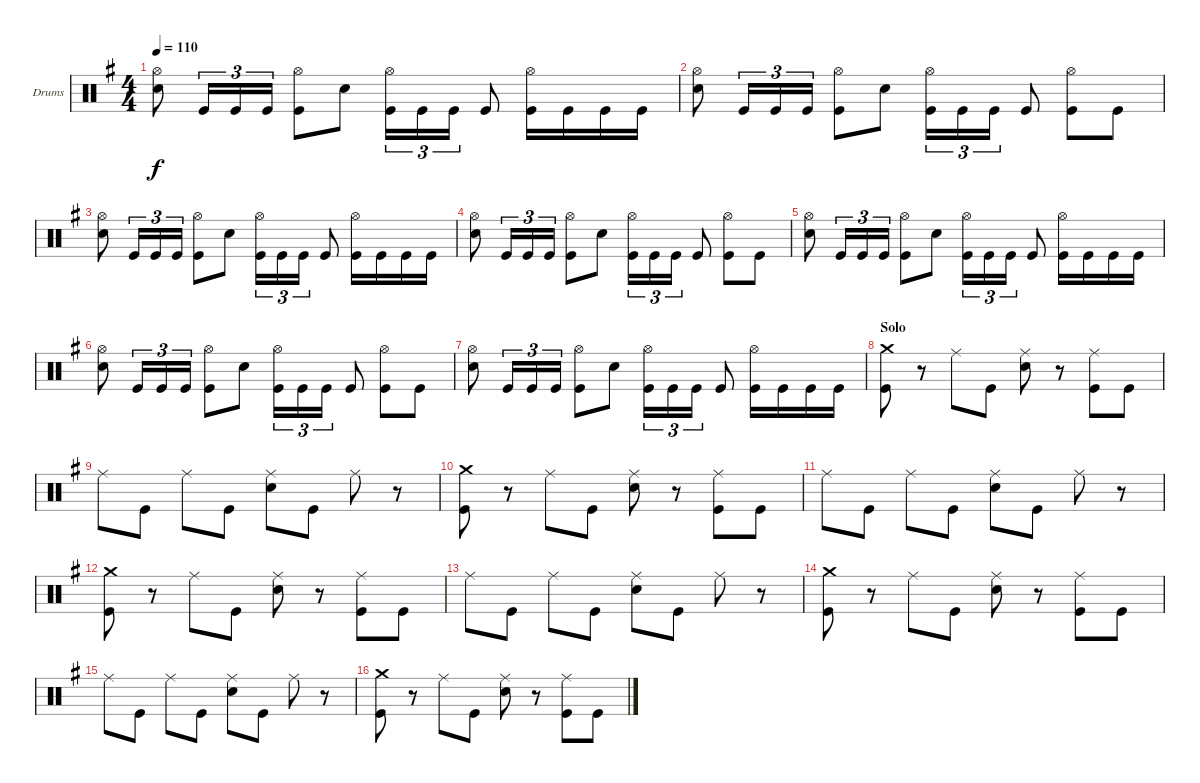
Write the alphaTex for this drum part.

\bracketExtendMode groupsimilarinstruments
\firstSystemTrackNameOrientation horizontal
\otherSystemsTrackNameOrientation horizontal
\track ("Drumkit" "Drums") {instrument percussion}
\staff {score}
\articulation defaults
\ts (4 4)
\tempo 110
\clef neutral
\ks g
("Hi-Hat (open)" "Snare (hit) 2").8{dy f} "Kick (hit)".16{tu (3 2)} "Kick (hit)".16{tu (3 2)} "Kick (hit)".16{tu (3 2)} ("Hi-Hat (open)" "Kick (hit)").8 "Snare (hit) 2".8 ("Hi-Hat (open)" "Kick (hit)").16{tu (3 2)} "Kick (hit)".16{tu (3 2)} "Kick (hit)".16{tu (3 2)} "Kick (hit)".8 ("Hi-Hat (open)" "Kick (hit)").16 "Kick (hit)".16 "Kick (hit)".16 "Kick (hit)".16 |
("Hi-Hat (open)" "Snare (hit) 2").8 "Kick (hit)".16{tu (3 2)} "Kick (hit)".16{tu (3 2)} "Kick (hit)".16{tu (3 2)} ("Hi-Hat (open)" "Kick (hit)").8 "Snare (hit) 2".8 ("Hi-Hat (open)" "Kick (hit)").16{tu (3 2)} "Kick (hit)".16{tu (3 2)} "Kick (hit)".16{tu (3 2)} "Kick (hit)".8 ("Hi-Hat (open)" "Kick (hit)").8 "Kick (hit)".8 |
("Hi-Hat (open)" "Snare (hit) 2").8 "Kick (hit)".16{tu (3 2)} "Kick (hit)".16{tu (3 2)} "Kick (hit)".16{tu (3 2)} ("Hi-Hat (open)" "Kick (hit)").8 "Snare (hit) 2".8 ("Hi-Hat (open)" "Kick (hit)").16{tu (3 2)} "Kick (hit)".16{tu (3 2)} "Kick (hit)".16{tu (3 2)} "Kick (hit)".8 ("Hi-Hat (open)" "Kick (hit)").16 "Kick (hit)".16 "Kick (hit)".16 "Kick (hit)".16 |
("Hi-Hat (open)" "Snare (hit) 2").8 "Kick (hit)".16{tu (3 2)} "Kick (hit)".16{tu (3 2)} "Kick (hit)".16{tu (3 2)} ("Hi-Hat (open)" "Kick (hit)").8 "Snare (hit) 2".8 ("Hi-Hat (open)" "Kick (hit)").16{tu (3 2)} "Kick (hit)".16{tu (3 2)} "Kick (hit)".16{tu (3 2)} "Kick (hit)".8 ("Hi-Hat (open)" "Kick (hit)").8 "Kick (hit)".8 |
("Hi-Hat (open)" "Snare (hit) 2").8 "Kick (hit)".16{tu (3 2)} "Kick (hit)".16{tu (3 2)} "Kick (hit)".16{tu (3 2)} ("Hi-Hat (open)" "Kick (hit)").8 "Snare (hit) 2".8 ("Hi-Hat (open)" "Kick (hit)").16{tu (3 2)} "Kick (hit)".16{tu (3 2)} "Kick (hit)".16{tu (3 2)} "Kick (hit)".8 ("Hi-Hat (open)" "Kick (hit)").16 "Kick (hit)".16 "Kick (hit)".16 "Kick (hit)".16 |
("Hi-Hat (open)" "Snare (hit) 2").8 "Kick (hit)".16{tu (3 2)} "Kick (hit)".16{tu (3 2)} "Kick (hit)".16{tu (3 2)} ("Hi-Hat (open)" "Kick (hit)").8 "Snare (hit) 2".8 ("Hi-Hat (open)" "Kick (hit)").16{tu (3 2)} "Kick (hit)".16{tu (3 2)} "Kick (hit)".16{tu (3 2)} "Kick (hit)".8 ("Hi-Hat (open)" "Kick (hit)").8 "Kick (hit)".8 |
("Hi-Hat (open)" "Snare (hit) 2").8 "Kick (hit)".16{tu (3 2)} "Kick (hit)".16{tu (3 2)} "Kick (hit)".16{tu (3 2)} ("Hi-Hat (open)" "Kick (hit)").8 "Snare (hit) 2".8 ("Hi-Hat (open)" "Kick (hit)").16{tu (3 2)} "Kick (hit)".16{tu (3 2)} "Kick (hit)".16{tu (3 2)} "Kick (hit)".8 ("Hi-Hat (open)" "Kick (hit)").16 "Kick (hit)".16 "Kick (hit)".16 "Kick (hit)".16 |
\section ("" "Solo")
("Crash medium (hit)" "Kick (hit)").8 r.8 "Ride (middle)".8 "Kick (hit)".8 ("Ride (middle)" "Snare (hit) 2").8 r.8 ("Ride (middle)" "Kick (hit)").8 "Kick (hit)".8 |
"Ride (middle)".8 "Kick (hit)".8 "Ride (middle)".8 "Kick (hit)".8 ("Ride (middle)" "Snare (hit) 2").8 "Kick (hit)".8 "Ride (middle)".8 r.8 |
("Crash medium (hit)" "Kick (hit)").8 r.8 "Ride (middle)".8 "Kick (hit)".8 ("Ride (middle)" "Snare (hit) 2").8 r.8 ("Ride (middle)" "Kick (hit)").8 "Kick (hit)".8 |
"Ride (middle)".8 "Kick (hit)".8 "Ride (middle)".8 "Kick (hit)".8 ("Ride (middle)" "Snare (hit) 2").8 "Kick (hit)".8 "Ride (middle)".8 r.8 |
("Crash medium (hit)" "Kick (hit)").8 r.8 "Ride (middle)".8 "Kick (hit)".8 ("Ride (middle)" "Snare (hit) 2").8 r.8 ("Ride (middle)" "Kick (hit)").8 "Kick (hit)".8 |
"Ride (middle)".8 "Kick (hit)".8 "Ride (middle)".8 "Kick (hit)".8 ("Ride (middle)" "Snare (hit) 2").8 "Kick (hit)".8 "Ride (middle)".8 r.8 |
("Crash medium (hit)" "Kick (hit)").8 r.8 "Ride (middle)".8 "Kick (hit)".8 ("Ride (middle)" "Snare (hit) 2").8 r.8 ("Ride (middle)" "Kick (hit)").8 "Kick (hit)".8 |
"Ride (middle)".8 "Kick (hit)".8 "Ride (middle)".8 "Kick (hit)".8 ("Ride (middle)" "Snare (hit) 2").8 "Kick (hit)".8 "Ride (middle)".8 r.8 |
("Crash medium (hit)" "Kick (hit)").8 r.8 "Ride (middle)".8 "Kick (hit)".8 ("Ride (middle)" "Snare (hit) 2").8 r.8 ("Ride (middle)" "Kick (hit)").8 "Kick (hit)".8
